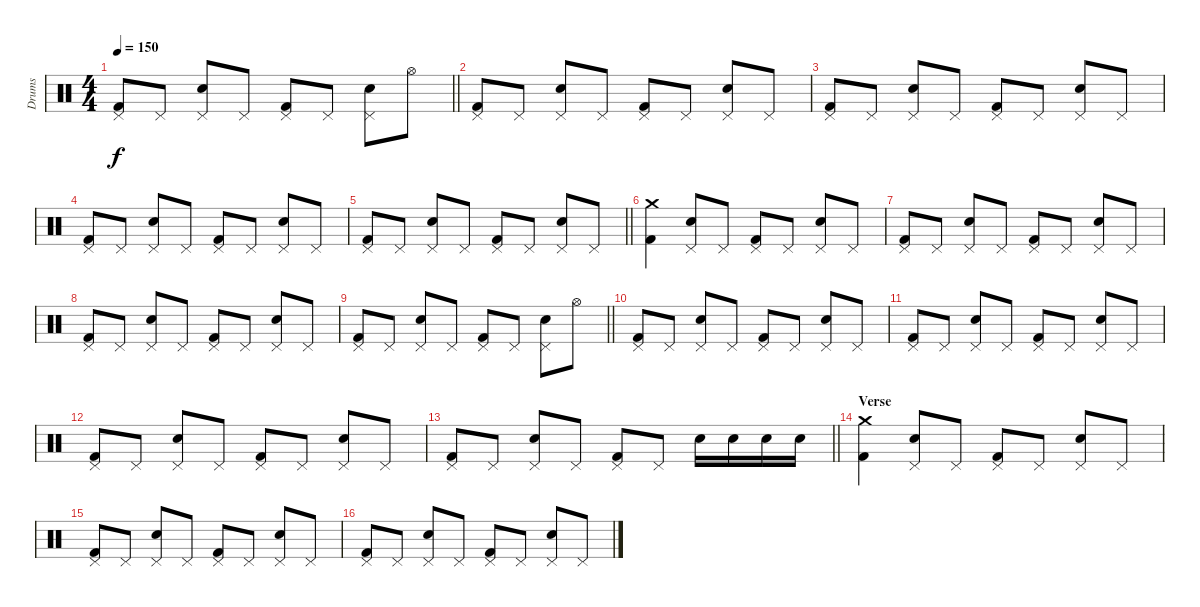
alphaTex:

\track ("Drums" "Drums") {instrument percussion}
\staff {score}
\articulation defaults
\ts (4 4)
\tempo 150
\clef neutral
\barLineRight lightlight
\ks c
("Kick (hit) 2" "Pedal Hi-Hat (hit)").8{dy f} "Pedal Hi-Hat (hit)".8 ("Snare (hit) 2" "Pedal Hi-Hat (hit)").8 "Pedal Hi-Hat (hit)".8 ("Kick (hit) 2" "Pedal Hi-Hat (hit)").8 "Pedal Hi-Hat (hit)".8 ("Snare (hit) 2" "Pedal Hi-Hat (hit)").8 "Hi-Hat (open)".8 |
\section ("" "")
("Kick (hit) 2" "Pedal Hi-Hat (hit)").8 "Pedal Hi-Hat (hit)".8 ("Snare (hit) 2" "Pedal Hi-Hat (hit)").8 "Pedal Hi-Hat (hit)".8 ("Kick (hit) 2" "Pedal Hi-Hat (hit)").8 "Pedal Hi-Hat (hit)".8 ("Snare (hit) 2" "Pedal Hi-Hat (hit)").8 "Pedal Hi-Hat (hit)".8 |
("Kick (hit) 2" "Pedal Hi-Hat (hit)").8 "Pedal Hi-Hat (hit)".8 ("Snare (hit) 2" "Pedal Hi-Hat (hit)").8 "Pedal Hi-Hat (hit)".8 ("Kick (hit) 2" "Pedal Hi-Hat (hit)").8 "Pedal Hi-Hat (hit)".8 ("Snare (hit) 2" "Pedal Hi-Hat (hit)").8 "Pedal Hi-Hat (hit)".8 |
("Kick (hit) 2" "Pedal Hi-Hat (hit)").8 "Pedal Hi-Hat (hit)".8 ("Snare (hit) 2" "Pedal Hi-Hat (hit)").8 "Pedal Hi-Hat (hit)".8 ("Kick (hit) 2" "Pedal Hi-Hat (hit)").8 "Pedal Hi-Hat (hit)".8 ("Snare (hit) 2" "Pedal Hi-Hat (hit)").8 "Pedal Hi-Hat (hit)".8 |
\barLineRight lightlight
("Kick (hit) 2" "Pedal Hi-Hat (hit)").8 "Pedal Hi-Hat (hit)".8 ("Snare (hit) 2" "Pedal Hi-Hat (hit)").8 "Pedal Hi-Hat (hit)".8 ("Kick (hit) 2" "Pedal Hi-Hat (hit)").8 "Pedal Hi-Hat (hit)".8 ("Snare (hit) 2" "Pedal Hi-Hat (hit)").8 "Pedal Hi-Hat (hit)".8 |
\section ("" "")
("Kick (hit) 2" "Crash medium (hit)").4 ("Snare (hit) 2" "Pedal Hi-Hat (hit)").8 "Pedal Hi-Hat (hit)".8 ("Kick (hit) 2" "Pedal Hi-Hat (hit)").8 "Pedal Hi-Hat (hit)".8 ("Snare (hit) 2" "Pedal Hi-Hat (hit)").8 "Pedal Hi-Hat (hit)".8 |
("Kick (hit) 2" "Pedal Hi-Hat (hit)").8 "Pedal Hi-Hat (hit)".8 ("Snare (hit) 2" "Pedal Hi-Hat (hit)").8 "Pedal Hi-Hat (hit)".8 ("Kick (hit) 2" "Pedal Hi-Hat (hit)").8 "Pedal Hi-Hat (hit)".8 ("Snare (hit) 2" "Pedal Hi-Hat (hit)").8 "Pedal Hi-Hat (hit)".8 |
("Kick (hit) 2" "Pedal Hi-Hat (hit)").8 "Pedal Hi-Hat (hit)".8 ("Snare (hit) 2" "Pedal Hi-Hat (hit)").8 "Pedal Hi-Hat (hit)".8 ("Kick (hit) 2" "Pedal Hi-Hat (hit)").8 "Pedal Hi-Hat (hit)".8 ("Snare (hit) 2" "Pedal Hi-Hat (hit)").8 "Pedal Hi-Hat (hit)".8 |
\barLineRight lightlight
("Kick (hit) 2" "Pedal Hi-Hat (hit)").8 "Pedal Hi-Hat (hit)".8 ("Snare (hit) 2" "Pedal Hi-Hat (hit)").8 "Pedal Hi-Hat (hit)".8 ("Kick (hit) 2" "Pedal Hi-Hat (hit)").8 "Pedal Hi-Hat (hit)".8 ("Snare (hit) 2" "Pedal Hi-Hat (hit)").8 "Hi-Hat (open)".8 |
\section ("" "")
("Kick (hit) 2" "Pedal Hi-Hat (hit)").8 "Pedal Hi-Hat (hit)".8 ("Snare (hit) 2" "Pedal Hi-Hat (hit)").8 "Pedal Hi-Hat (hit)".8 ("Kick (hit) 2" "Pedal Hi-Hat (hit)").8 "Pedal Hi-Hat (hit)".8 ("Snare (hit) 2" "Pedal Hi-Hat (hit)").8 "Pedal Hi-Hat (hit)".8 |
("Kick (hit) 2" "Pedal Hi-Hat (hit)").8 "Pedal Hi-Hat (hit)".8 ("Snare (hit) 2" "Pedal Hi-Hat (hit)").8 "Pedal Hi-Hat (hit)".8 ("Kick (hit) 2" "Pedal Hi-Hat (hit)").8 "Pedal Hi-Hat (hit)".8 ("Snare (hit) 2" "Pedal Hi-Hat (hit)").8 "Pedal Hi-Hat (hit)".8 |
("Kick (hit) 2" "Pedal Hi-Hat (hit)").8 "Pedal Hi-Hat (hit)".8 ("Snare (hit) 2" "Pedal Hi-Hat (hit)").8 "Pedal Hi-Hat (hit)".8 ("Kick (hit) 2" "Pedal Hi-Hat (hit)").8 "Pedal Hi-Hat (hit)".8 ("Snare (hit) 2" "Pedal Hi-Hat (hit)").8 "Pedal Hi-Hat (hit)".8 |
\barLineRight lightlight
("Kick (hit) 2" "Pedal Hi-Hat (hit)").8 "Pedal Hi-Hat (hit)".8 ("Snare (hit) 2" "Pedal Hi-Hat (hit)").8 "Pedal Hi-Hat (hit)".8 ("Kick (hit) 2" "Pedal Hi-Hat (hit)").8 "Pedal Hi-Hat (hit)".8 "Snare (hit) 2".16 "Snare (hit) 2".16 "Snare (hit) 2".16 "Snare (hit) 2".16 |
\section ("" "Verse")
("Kick (hit) 2" "Crash medium (hit)").4 ("Snare (hit) 2" "Pedal Hi-Hat (hit)").8 "Pedal Hi-Hat (hit)".8 ("Kick (hit) 2" "Pedal Hi-Hat (hit)").8 "Pedal Hi-Hat (hit)".8 ("Snare (hit) 2" "Pedal Hi-Hat (hit)").8 "Pedal Hi-Hat (hit)".8 |
("Kick (hit) 2" "Pedal Hi-Hat (hit)").8 "Pedal Hi-Hat (hit)".8 ("Snare (hit) 2" "Pedal Hi-Hat (hit)").8 "Pedal Hi-Hat (hit)".8 ("Kick (hit) 2" "Pedal Hi-Hat (hit)").8 "Pedal Hi-Hat (hit)".8 ("Snare (hit) 2" "Pedal Hi-Hat (hit)").8 "Pedal Hi-Hat (hit)".8 |
("Kick (hit) 2" "Pedal Hi-Hat (hit)").8 "Pedal Hi-Hat (hit)".8 ("Snare (hit) 2" "Pedal Hi-Hat (hit)").8 "Pedal Hi-Hat (hit)".8 ("Kick (hit) 2" "Pedal Hi-Hat (hit)").8 "Pedal Hi-Hat (hit)".8 ("Snare (hit) 2" "Pedal Hi-Hat (hit)").8 "Pedal Hi-Hat (hit)".8
